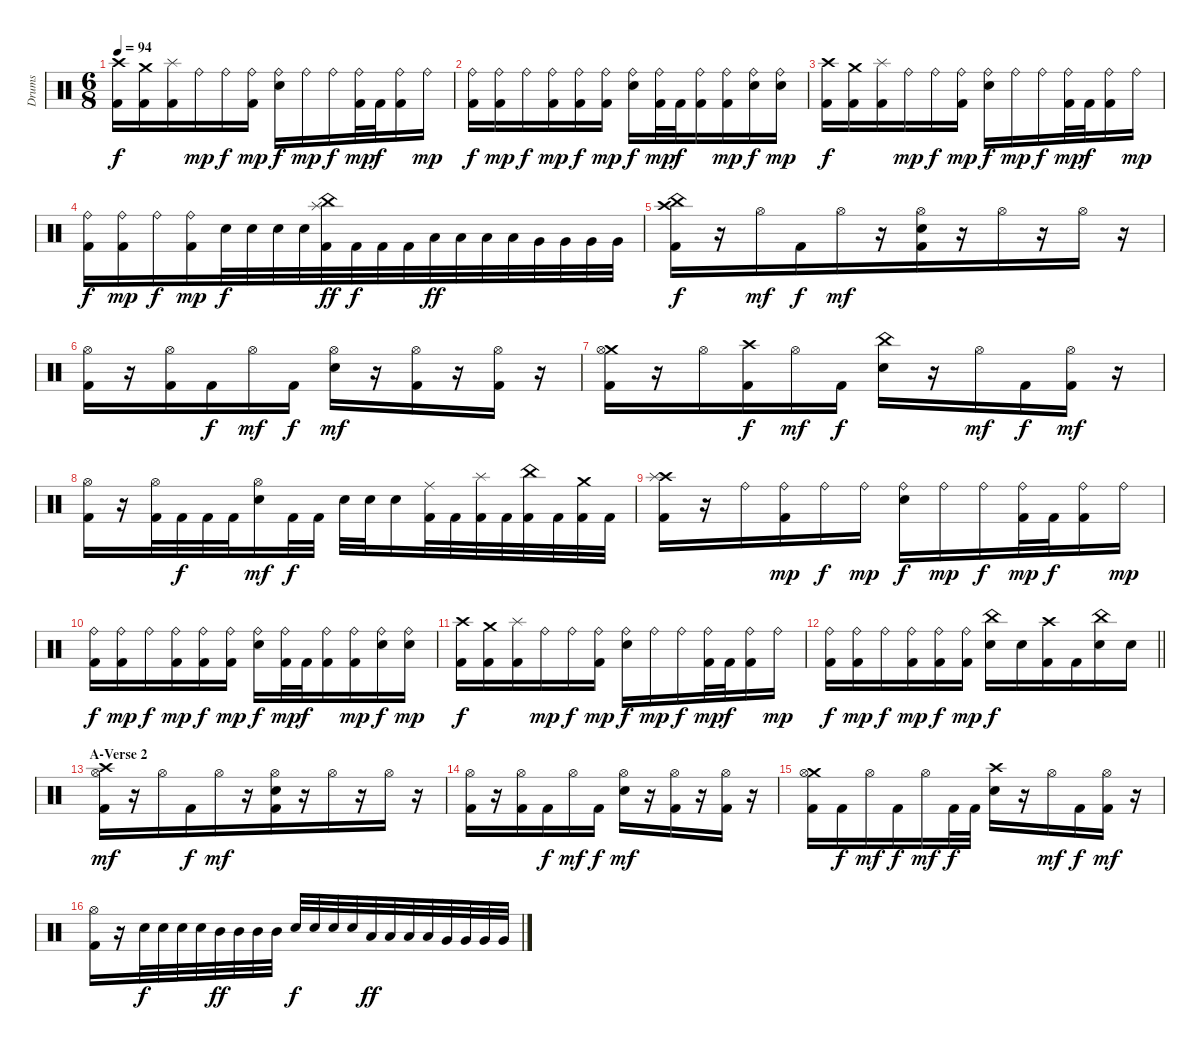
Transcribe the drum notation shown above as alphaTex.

\track ("Drums" "Drums") {instrument percussion}
\staff {score}
\articulation defaults
\ts (6 8)
\tempo 94
\clef neutral
\ks c
("Crash high (hit)" "Kick (hit) 2").16{dy f beam merge} ("Crash medium (hit)" "Kick (hit) 2").16{beam merge} ("Splash (hit)" "Kick (hit) 2").16 "Ride (bell)".16{dy mp beam merge} "Ride (bell)".16{dy f} ("Ride (bell)" "Kick (hit) 2").16{dy mp} ("Ride (bell)" "Snare (hit) 2").16{dy f} "Ride (bell)".16{dy mp} "Ride (bell)".16{dy f beam merge} ("Ride (bell)" "Kick (hit) 2").32{dy mp beam merge} "Kick (hit) 2".32{dy f beam merge} ("Ride (bell)" "Kick (hit) 2").16 "Ride (bell)".16{dy mp} |
("Ride (bell)" "Kick (hit) 2").16{dy f beam merge} ("Ride (bell)" "Kick (hit) 2").16{dy mp beam merge} "Ride (bell)".16{dy f} ("Ride (bell)" "Kick (hit) 2").16{dy mp beam merge} ("Ride (bell)" "Kick (hit) 2").16{dy f} ("Ride (bell)" "Kick (hit) 2").16{dy mp} ("Ride (bell)" "Snare (hit) 2").16{dy f} ("Ride (bell)" "Kick (hit) 2").32{dy mp beam merge} "Kick (hit) 2".32{dy f} ("Ride (bell)" "Kick (hit) 2").16{beam merge} ("Ride (bell)" "Kick (hit) 2").16{dy mp beam merge} ("Ride (bell)" "Snare (hit) 2").16{dy f} ("Ride (bell)" "Snare (hit) 2").16{dy mp} |
("Crash high (hit)" "Kick (hit) 2").16{dy f beam merge} ("Crash medium (hit)" "Kick (hit) 2").16{beam merge} ("Splash (hit)" "Kick (hit) 2").16 "Ride (bell)".16{dy mp beam merge} "Ride (bell)".16{dy f} ("Ride (bell)" "Kick (hit) 2").16{dy mp} ("Ride (bell)" "Snare (hit) 2").16{dy f} "Ride (bell)".16{dy mp} "Ride (bell)".16{dy f beam merge} ("Ride (bell)" "Kick (hit) 2").32{dy mp beam merge} "Kick (hit) 2".32{dy f beam merge} ("Ride (bell)" "Kick (hit) 2").16 "Ride (bell)".16{dy mp} |
("Ride (bell)" "Kick (hit) 2").16{dy f beam merge} ("Ride (bell)" "Kick (hit) 2").16{dy mp beam merge} "Ride (bell)".16{dy f} ("Ride (bell)" "Kick (hit) 2").16{dy mp} "Snare (hit) 2".32{dy f} "Snare (hit) 2".32 "Snare (hit) 2".32 "Snare (hit) 2".32{beam merge} ("China (hit)" "Splash (hit)" "Kick (hit) 2").32{dy ff} "Kick (hit) 2".32{dy f beam merge} "Kick (hit) 2".32 "Kick (hit) 2".32{beam merge} "Low Tom (hit)".32{dy ff} "Low Tom (hit)".32 "Low Tom (hit)".32 "Low Tom (hit)".32 "Very Low Tom (hit)".32{beam merge} "Very Low Tom (hit)".32 "Very Low Tom (hit)".32 "Very Low Tom (hit)".32 |
("China (hit)" "Crash high (hit)" "Kick (hit) 2").16{dy f} r.16 "Hi-Hat (open)".16{dy mf beam merge} "Kick (hit) 2".16{dy f} "Hi-Hat (open)".16{dy mf beam merge} r.16 ("Hi-Hat (open)" "Snare (hit) 2" "Kick (hit) 2").16 r.16 "Hi-Hat (open)".16 r.16{beam merge} "Hi-Hat (open)".16{beam merge} r.16 |
("Hi-Hat (open)" "Kick (hit) 2").16 r.16 ("Hi-Hat (open)" "Kick (hit) 2").16{beam merge} "Kick (hit) 2".16{dy f} "Hi-Hat (open)".16{dy mf beam merge} "Kick (hit) 2".16{dy f} ("Hi-Hat (open)" "Snare (hit) 2").16{dy mf} r.16 ("Hi-Hat (open)" "Kick (hit) 2").16 r.16{beam merge} ("Hi-Hat (open)" "Kick (hit) 2").16{beam merge} r.16 |
("Crash medium (hit)" "Hi-Hat (open)" "Kick (hit) 2").16 r.16 "Hi-Hat (open)".16{beam merge} ("Crash high (hit)" "Kick (hit) 2").16{dy f} "Hi-Hat (open)".16{dy mf} "Kick (hit) 2".16{dy f} ("China (hit)" "Snare (hit) 2").16 r.16 "Hi-Hat (open)".16{dy mf} "Kick (hit) 2".16{dy f beam merge} ("Hi-Hat (open)" "Kick (hit) 2").16{dy mf beam merge} r.16 |
("Hi-Hat (open)" "Kick (hit) 2").16 r.16 ("Hi-Hat (open)" "Kick (hit) 2").32 "Kick (hit) 2".32{dy f beam merge} "Kick (hit) 2".32 "Kick (hit) 2".32 ("Hi-Hat (open)" "Snare (hit) 2").16{dy mf} "Kick (hit) 2".32{dy f} "Kick (hit) 2".32 "Snare (hit) 2".32{beam merge} "Snare (hit) 2".32{beam merge} "Snare (hit) 2".16{beam merge} ("Ride (middle)" "Kick (hit) 2").32 "Kick (hit) 2".32{beam merge} ("Splash (hit)" "Kick (hit) 2").32 "Kick (hit) 2".32{beam merge} ("China (hit)" "Kick (hit) 2").32 "Kick (hit) 2".32 ("Crash medium (hit)" "Kick (hit) 2").32 "Kick (hit) 2".32 |
("Crash high (hit)" "Splash (hit)" "Kick (hit) 2").16{beam merge} r.16{beam merge} "Ride (bell)".16 ("Ride (bell)" "Kick (hit) 2").16{dy mp beam merge} "Ride (bell)".16{dy f} "Ride (bell)".16{dy mp} ("Ride (bell)" "Snare (hit) 2").16{dy f} "Ride (bell)".16{dy mp} "Ride (bell)".16{dy f beam merge} ("Ride (bell)" "Kick (hit) 2").32{dy mp} "Kick (hit) 2".32{dy f beam merge} ("Ride (bell)" "Kick (hit) 2").16 "Ride (bell)".16{dy mp} |
("Ride (bell)" "Kick (hit) 2").16{dy f beam merge} ("Ride (bell)" "Kick (hit) 2").16{dy mp beam merge} "Ride (bell)".16{dy f} ("Ride (bell)" "Kick (hit) 2").16{dy mp beam merge} ("Ride (bell)" "Kick (hit) 2").16{dy f} ("Ride (bell)" "Kick (hit) 2").16{dy mp} ("Ride (bell)" "Snare (hit) 2").16{dy f} ("Ride (bell)" "Kick (hit) 2").32{dy mp beam merge} "Kick (hit) 2".32{dy f} ("Ride (bell)" "Kick (hit) 2").16{beam merge} ("Ride (bell)" "Kick (hit) 2").16{dy mp beam merge} ("Ride (bell)" "Snare (hit) 2").16{dy f} ("Ride (bell)" "Snare (hit) 2").16{dy mp} |
("Crash high (hit)" "Kick (hit) 2").16{dy f beam merge} ("Crash medium (hit)" "Kick (hit) 2").16{beam merge} ("Splash (hit)" "Kick (hit) 2").16 "Ride (bell)".16{dy mp beam merge} "Ride (bell)".16{dy f} ("Ride (bell)" "Kick (hit) 2").16{dy mp} ("Ride (bell)" "Snare (hit) 2").16{dy f} "Ride (bell)".16{dy mp} "Ride (bell)".16{dy f beam merge} ("Ride (bell)" "Kick (hit) 2").32{dy mp beam merge} "Kick (hit) 2".32{dy f beam merge} ("Ride (bell)" "Kick (hit) 2").16 "Ride (bell)".16{dy mp} |
\barLineRight lightlight
("Ride (bell)" "Kick (hit) 2").16{dy f beam merge} ("Ride (bell)" "Kick (hit) 2").16{dy mp beam merge} "Ride (bell)".16{dy f} ("Ride (bell)" "Kick (hit) 2").16{dy mp beam merge} ("Ride (bell)" "Kick (hit) 2").16{dy f} ("Ride (bell)" "Kick (hit) 2").16{dy mp} ("China (hit)" "Snare (hit) 2").16{dy f} "Snare (hit) 2".16{beam merge} ("Crash high (hit)" "Kick (hit) 2").16 "Kick (hit) 2".16 ("China (hit)" "Snare (hit) 2").16 "Snare (hit) 2".16 |
\section ("" "A-Verse 2")
("Crash high (hit)" "Hi-Hat (open)" "Kick (hit) 2").16{dy mf} r.16 "Hi-Hat (open)".16{beam merge} "Kick (hit) 2".16{dy f} "Hi-Hat (open)".16{dy mf beam merge} r.16 ("Hi-Hat (open)" "Snare (hit) 2" "Kick (hit) 2").16 r.16 "Hi-Hat (open)".16 r.16{beam merge} "Hi-Hat (open)".16{beam merge} r.16 |
("Hi-Hat (open)" "Kick (hit) 2").16 r.16 ("Hi-Hat (open)" "Kick (hit) 2").16{beam merge} "Kick (hit) 2".16{dy f} "Hi-Hat (open)".16{dy mf beam merge} "Kick (hit) 2".16{dy f} ("Hi-Hat (open)" "Snare (hit) 2").16{dy mf} r.16 ("Hi-Hat (open)" "Kick (hit) 2").16 r.16{beam merge} ("Hi-Hat (open)" "Kick (hit) 2").16{beam merge} r.16 |
("Crash medium (hit)" "Hi-Hat (open)" "Kick (hit) 2").16 "Kick (hit) 2".16{dy f} "Hi-Hat (open)".16{dy mf beam merge} "Kick (hit) 2".16{dy f} "Hi-Hat (open)".16{dy mf} "Kick (hit) 2".32{dy f beam merge} "Kick (hit) 2".32 ("Crash high (hit)" "Snare (hit) 2").16 r.16 "Hi-Hat (open)".16{dy mf} "Kick (hit) 2".16{dy f beam merge} ("Hi-Hat (open)" "Kick (hit) 2").16{dy mf beam merge} r.16 |
("Hi-Hat (open)" "Kick (hit) 2").16 r.16 "Snare (hit) 2".32{dy f beam merge} "Snare (hit) 2".32 "Snare (hit) 2".32 "Snare (hit) 2".32 "Mid Tom (hit)".32{dy ff} "Mid Tom (hit)".32{beam merge} "Mid Tom (hit)".32 "Mid Tom (hit)".32 "Snare (hit) 2".32{dy f beam merge} "Snare (hit) 2".32 "Snare (hit) 2".32 "Snare (hit) 2".32{beam merge} "Low Tom (hit)".32{dy ff beam merge} "Low Tom (hit)".32{beam merge} "Low Tom (hit)".32 "Low Tom (hit)".32 "Very Low Tom (hit)".32{beam merge} "Very Low Tom (hit)".32 "Very Low Tom (hit)".32 "Very Low Tom (hit)".32
